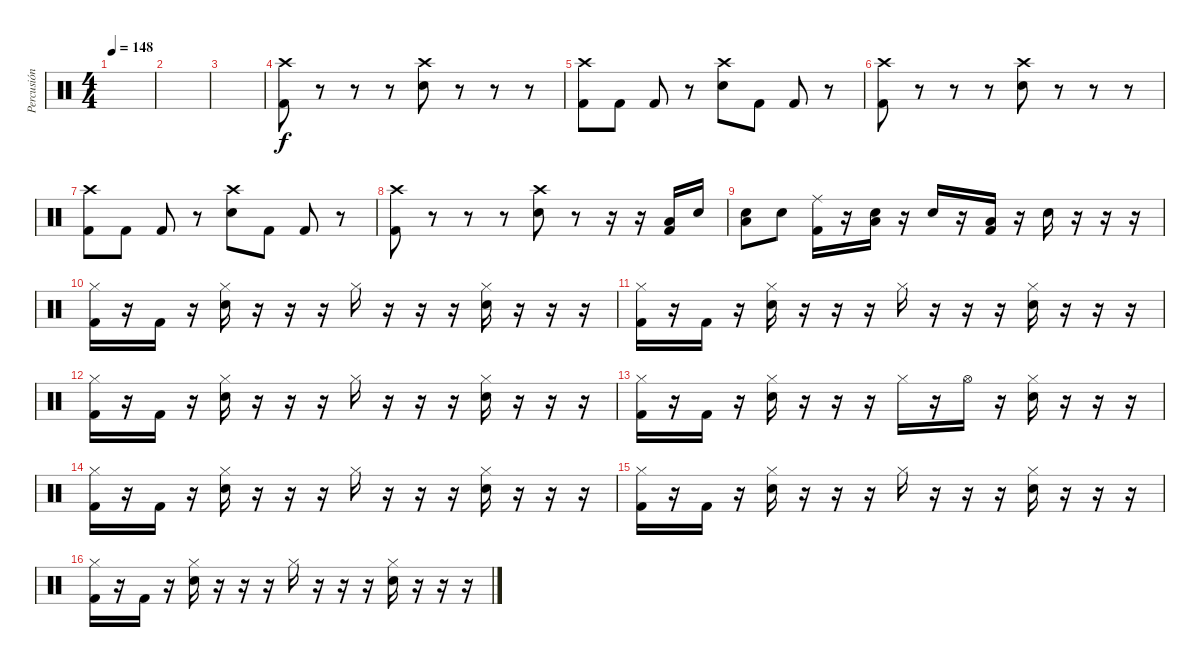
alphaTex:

\track ("Percusión" "Percusión") {instrument percussion}
\staff {score}
\articulation defaults
\ts (4 4)
\tempo 148
\clef neutral
\ks c
|
|
|
("Crash high (hit)" "Kick (hit) 2").8 r.8 r.8 r.8 ("Crash high (hit)" "Electric Snare (hit)").8 r.8 r.8 r.8 |
("Crash high (hit)" "Kick (hit) 2").8 "Kick (hit) 2".8 "Kick (hit) 2".8 r.8 ("Crash high (hit)" "Electric Snare (hit)").8 "Kick (hit) 2".8 "Kick (hit) 2".8 r.8 |
("Crash high (hit)" "Kick (hit) 2").8 r.8 r.8 r.8 ("Crash high (hit)" "Electric Snare (hit)").8 r.8 r.8 r.8 |
("Crash high (hit)" "Kick (hit) 2").8 "Kick (hit) 2".8 "Kick (hit) 2".8 r.8 ("Crash high (hit)" "Electric Snare (hit)").8 "Kick (hit) 2".8 "Kick (hit) 2".8 r.8 |
("Crash high (hit)" "Kick (hit) 2").8 r.8 r.8 r.8 ("Crash high (hit)" "Electric Snare (hit)").8 r.8 r.16 r.16 ("Low Floor Tom (hit)" "Kick (hit) 2").16 "Electric Snare (hit)".16 |
("Low Floor Tom (hit)" "Electric Snare (hit)").8 "Electric Snare (hit)".8 ("Ride (middle)" "Kick (hit) 2").16 r.16 ("Low Floor Tom (hit)" "Electric Snare (hit)").16 r.16 "Electric Snare (hit)".16 r.16 ("Low Floor Tom (hit)" "Kick (hit) 2").16 r.16 "Electric Snare (hit)".16 r.16 r.16 r.16 |
("Hi-Hat (closed)" "Kick (hit) 2").16 r.16 "Kick (hit) 2".16 r.16 ("Hi-Hat (closed)" "Electric Snare (hit)").16 r.16 r.16 r.16 "Hi-Hat (closed)".16 r.16 r.16 r.16 ("Hi-Hat (closed)" "Electric Snare (hit)").16 r.16 r.16 r.16 |
("Hi-Hat (closed)" "Kick (hit) 2").16 r.16 "Kick (hit) 2".16 r.16 ("Hi-Hat (closed)" "Electric Snare (hit)").16 r.16 r.16 r.16 "Hi-Hat (closed)".16 r.16 r.16 r.16 ("Hi-Hat (closed)" "Electric Snare (hit)").16 r.16 r.16 r.16 |
("Hi-Hat (closed)" "Kick (hit) 2").16 r.16 "Kick (hit) 2".16 r.16 ("Hi-Hat (closed)" "Electric Snare (hit)").16 r.16 r.16 r.16 "Hi-Hat (closed)".16 r.16 r.16 r.16 ("Hi-Hat (closed)" "Electric Snare (hit)").16 r.16 r.16 r.16 |
("Hi-Hat (closed)" "Kick (hit) 2").16 r.16 "Kick (hit) 2".16 r.16 ("Hi-Hat (closed)" "Electric Snare (hit)").16 r.16 r.16 r.16 "Hi-Hat (closed)".16 r.16 "Hi-Hat (open)".16 r.16 ("Hi-Hat (closed)" "Electric Snare (hit)").16 r.16 r.16 r.16 |
("Hi-Hat (closed)" "Kick (hit) 2").16 r.16 "Kick (hit) 2".16 r.16 ("Hi-Hat (closed)" "Electric Snare (hit)").16 r.16 r.16 r.16 "Hi-Hat (closed)".16 r.16 r.16 r.16 ("Hi-Hat (closed)" "Electric Snare (hit)").16 r.16 r.16 r.16 |
("Hi-Hat (closed)" "Kick (hit) 2").16 r.16 "Kick (hit) 2".16 r.16 ("Hi-Hat (closed)" "Electric Snare (hit)").16 r.16 r.16 r.16 "Hi-Hat (closed)".16 r.16 r.16 r.16 ("Hi-Hat (closed)" "Electric Snare (hit)").16 r.16 r.16 r.16 |
("Hi-Hat (closed)" "Kick (hit) 2").16 r.16 "Kick (hit) 2".16 r.16 ("Hi-Hat (closed)" "Electric Snare (hit)").16 r.16 r.16 r.16 "Hi-Hat (closed)".16 r.16 r.16 r.16 ("Hi-Hat (closed)" "Electric Snare (hit)").16 r.16 r.16 r.16
